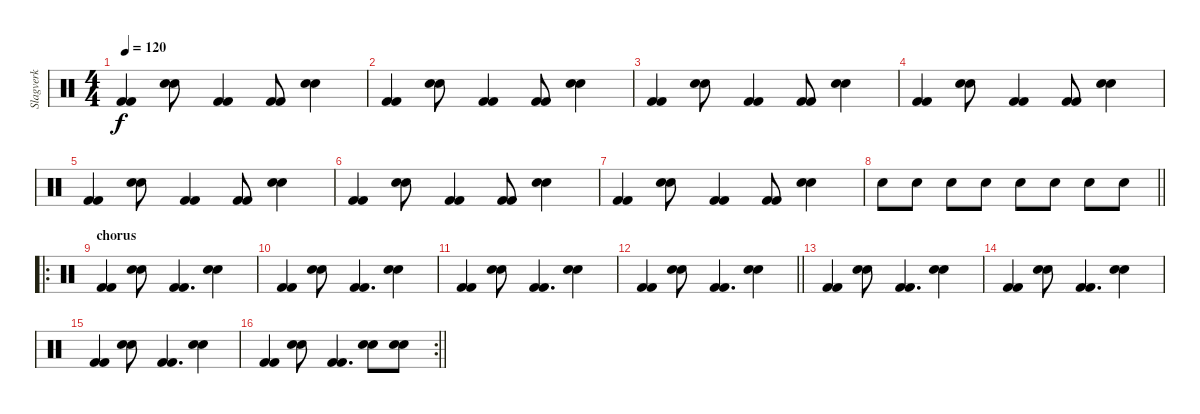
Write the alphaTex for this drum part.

\track ("Slagverk" "Slagverk") {instrument percussion}
\staff {score}
\articulation defaults
\ts (4 4)
\tempo 120
\clef neutral
\ks c
("Kick (hit) 2" "Kick (hit) 2").4{dy f} ("Snare (hit) 2" "Snare (hit) 2").8 ("Kick (hit) 2" "Kick (hit) 2").4 ("Kick (hit) 2" "Kick (hit) 2").8 ("Snare (hit) 2" "Snare (hit) 2").4 |
("Kick (hit) 2" "Kick (hit) 2").4 ("Snare (hit) 2" "Snare (hit) 2").8 ("Kick (hit) 2" "Kick (hit) 2").4 ("Kick (hit) 2" "Kick (hit) 2").8 ("Snare (hit) 2" "Snare (hit) 2").4 |
("Kick (hit) 2" "Kick (hit) 2").4 ("Snare (hit) 2" "Snare (hit) 2").8 ("Kick (hit) 2" "Kick (hit) 2").4 ("Kick (hit) 2" "Kick (hit) 2").8 ("Snare (hit) 2" "Snare (hit) 2").4 |
("Kick (hit) 2" "Kick (hit) 2").4 ("Snare (hit) 2" "Snare (hit) 2").8 ("Kick (hit) 2" "Kick (hit) 2").4 ("Kick (hit) 2" "Kick (hit) 2").8 ("Snare (hit) 2" "Snare (hit) 2").4 |
("Kick (hit) 2" "Kick (hit) 2").4 ("Snare (hit) 2" "Snare (hit) 2").8 ("Kick (hit) 2" "Kick (hit) 2").4 ("Kick (hit) 2" "Kick (hit) 2").8 ("Snare (hit) 2" "Snare (hit) 2").4 |
("Kick (hit) 2" "Kick (hit) 2").4 ("Snare (hit) 2" "Snare (hit) 2").8 ("Kick (hit) 2" "Kick (hit) 2").4 ("Kick (hit) 2" "Kick (hit) 2").8 ("Snare (hit) 2" "Snare (hit) 2").4 |
("Kick (hit) 2" "Kick (hit) 2").4 ("Snare (hit) 2" "Snare (hit) 2").8 ("Kick (hit) 2" "Kick (hit) 2").4 ("Kick (hit) 2" "Kick (hit) 2").8 ("Snare (hit) 2" "Snare (hit) 2").4 |
\barLineRight lightlight "Snare (hit) 2".8 "Snare (hit) 2".8 "Snare (hit) 2".8 "Snare (hit) 2".8 "Snare (hit) 2".8 "Snare (hit) 2".8 "Snare (hit) 2".8 "Snare (hit) 2".8
|
\ro
\section ("" "chorus")
("Kick (hit) 2" "Kick (hit) 2").4 ("Snare (hit) 2" "Snare (hit) 2").8 ("Kick (hit) 2" "Kick (hit) 2").4{d} ("Snare (hit) 2" "Snare (hit) 2").4 |
("Kick (hit) 2" "Kick (hit) 2").4 ("Snare (hit) 2" "Snare (hit) 2").8 ("Kick (hit) 2" "Kick (hit) 2").4{d} ("Snare (hit) 2" "Snare (hit) 2").4 |
("Kick (hit) 2" "Kick (hit) 2").4 ("Snare (hit) 2" "Snare (hit) 2").8 ("Kick (hit) 2" "Kick (hit) 2").4{d} ("Snare (hit) 2" "Snare (hit) 2").4 |
\barLineRight lightlight
("Kick (hit) 2" "Kick (hit) 2").4 ("Snare (hit) 2" "Snare (hit) 2").8 ("Kick (hit) 2" "Kick (hit) 2").4{d} ("Snare (hit) 2" "Snare (hit) 2").4 |
("Kick (hit) 2" "Kick (hit) 2").4 ("Snare (hit) 2" "Snare (hit) 2").8 ("Kick (hit) 2" "Kick (hit) 2").4{d} ("Snare (hit) 2" "Snare (hit) 2").4 |
("Kick (hit) 2" "Kick (hit) 2").4 ("Snare (hit) 2" "Snare (hit) 2").8 ("Kick (hit) 2" "Kick (hit) 2").4{d} ("Snare (hit) 2" "Snare (hit) 2").4 |
("Kick (hit) 2" "Kick (hit) 2").4 ("Snare (hit) 2" "Snare (hit) 2").8 ("Kick (hit) 2" "Kick (hit) 2").4{d} ("Snare (hit) 2" "Snare (hit) 2").4 |
\rc 2
\barLineRight lightlight
("Kick (hit) 2" "Kick (hit) 2").4 ("Snare (hit) 2" "Snare (hit) 2").8 ("Kick (hit) 2" "Kick (hit) 2").4{d} ("Snare (hit) 2" "Snare (hit) 2").8 ("Snare (hit) 2" "Snare (hit) 2").8
